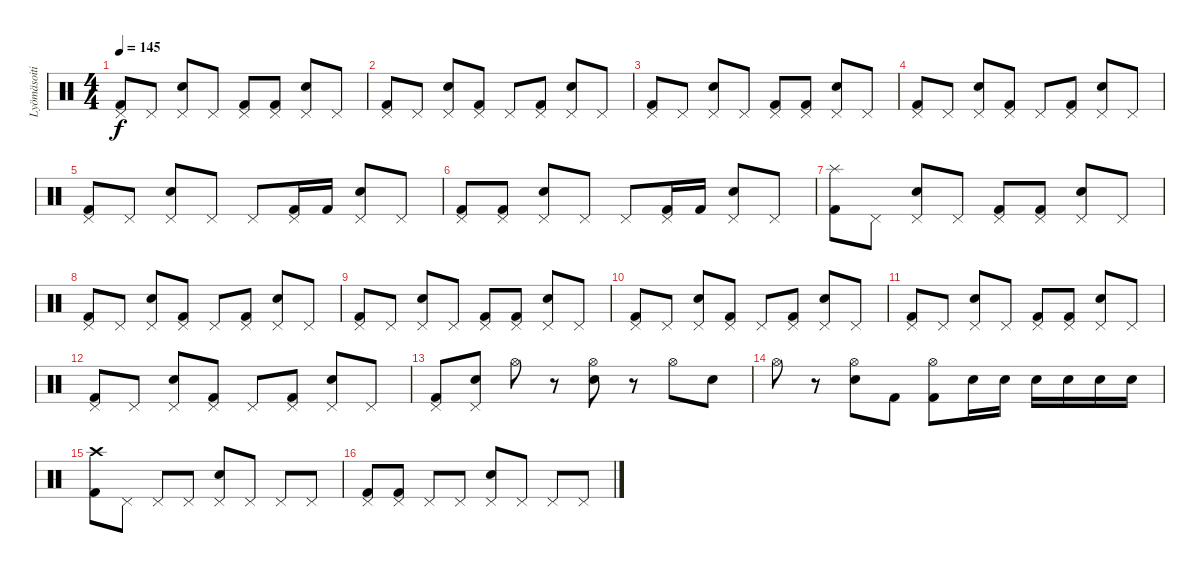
\track ("Lyömäsoitin" "Lyömäsoiti") {instrument percussion}
\staff {score}
\articulation defaults
\ts (4 4)
\tempo 145
\clef neutral
\ks c
("Pedal Hi-Hat (hit)" "Kick (hit) 2").8{dy f} "Pedal Hi-Hat (hit)".8 ("Pedal Hi-Hat (hit)" "Electric Snare (hit)").8 "Pedal Hi-Hat (hit)".8 ("Pedal Hi-Hat (hit)" "Kick (hit) 2").8 ("Pedal Hi-Hat (hit)" "Kick (hit) 2").8 ("Pedal Hi-Hat (hit)" "Electric Snare (hit)").8 "Pedal Hi-Hat (hit)".8 |
("Pedal Hi-Hat (hit)" "Kick (hit) 2").8 "Pedal Hi-Hat (hit)".8 ("Pedal Hi-Hat (hit)" "Electric Snare (hit)").8 ("Pedal Hi-Hat (hit)" "Kick (hit) 2").8 "Pedal Hi-Hat (hit)".8 ("Pedal Hi-Hat (hit)" "Kick (hit) 2").8 ("Pedal Hi-Hat (hit)" "Electric Snare (hit)").8 "Pedal Hi-Hat (hit)".8 |
("Pedal Hi-Hat (hit)" "Kick (hit) 2").8 "Pedal Hi-Hat (hit)".8 ("Pedal Hi-Hat (hit)" "Electric Snare (hit)").8 "Pedal Hi-Hat (hit)".8 ("Pedal Hi-Hat (hit)" "Kick (hit) 2").8 ("Pedal Hi-Hat (hit)" "Kick (hit) 2").8 ("Pedal Hi-Hat (hit)" "Electric Snare (hit)").8 "Pedal Hi-Hat (hit)".8 |
("Pedal Hi-Hat (hit)" "Kick (hit) 2").8 "Pedal Hi-Hat (hit)".8 ("Pedal Hi-Hat (hit)" "Electric Snare (hit)").8 ("Pedal Hi-Hat (hit)" "Kick (hit) 2").8 "Pedal Hi-Hat (hit)".8 ("Pedal Hi-Hat (hit)" "Kick (hit) 2").8 ("Pedal Hi-Hat (hit)" "Electric Snare (hit)").8 "Pedal Hi-Hat (hit)".8 |
("Pedal Hi-Hat (hit)" "Kick (hit) 2").8 "Pedal Hi-Hat (hit)".8 ("Pedal Hi-Hat (hit)" "Electric Snare (hit)").8 "Pedal Hi-Hat (hit)".8 "Pedal Hi-Hat (hit)".8 ("Pedal Hi-Hat (hit)" "Kick (hit) 2").16 "Kick (hit) 2".16 ("Pedal Hi-Hat (hit)" "Electric Snare (hit)").8 "Pedal Hi-Hat (hit)".8 |
("Pedal Hi-Hat (hit)" "Kick (hit) 2").8 ("Pedal Hi-Hat (hit)" "Kick (hit) 2").8 ("Pedal Hi-Hat (hit)" "Electric Snare (hit)").8 "Pedal Hi-Hat (hit)".8 "Pedal Hi-Hat (hit)".8 ("Pedal Hi-Hat (hit)" "Kick (hit) 2").16 "Kick (hit) 2".16 ("Pedal Hi-Hat (hit)" "Electric Snare (hit)").8 "Pedal Hi-Hat (hit)".8 |
("Splash (hit)" "Kick (hit) 2").8 "Pedal Hi-Hat (hit)".8 ("Pedal Hi-Hat (hit)" "Electric Snare (hit)").8 "Pedal Hi-Hat (hit)".8 ("Pedal Hi-Hat (hit)" "Kick (hit) 2").8 ("Pedal Hi-Hat (hit)" "Kick (hit) 2").8 ("Pedal Hi-Hat (hit)" "Electric Snare (hit)").8 "Pedal Hi-Hat (hit)".8 |
("Pedal Hi-Hat (hit)" "Kick (hit) 2").8 "Pedal Hi-Hat (hit)".8 ("Pedal Hi-Hat (hit)" "Electric Snare (hit)").8 ("Pedal Hi-Hat (hit)" "Kick (hit) 2").8 "Pedal Hi-Hat (hit)".8 ("Pedal Hi-Hat (hit)" "Kick (hit) 2").8 ("Pedal Hi-Hat (hit)" "Electric Snare (hit)").8 "Pedal Hi-Hat (hit)".8 |
("Pedal Hi-Hat (hit)" "Kick (hit) 2").8 "Pedal Hi-Hat (hit)".8 ("Pedal Hi-Hat (hit)" "Electric Snare (hit)").8 "Pedal Hi-Hat (hit)".8 ("Pedal Hi-Hat (hit)" "Kick (hit) 2").8 ("Pedal Hi-Hat (hit)" "Kick (hit) 2").8 ("Pedal Hi-Hat (hit)" "Electric Snare (hit)").8 "Pedal Hi-Hat (hit)".8 |
("Pedal Hi-Hat (hit)" "Kick (hit) 2").8 "Pedal Hi-Hat (hit)".8 ("Pedal Hi-Hat (hit)" "Electric Snare (hit)").8 ("Pedal Hi-Hat (hit)" "Kick (hit) 2").8 "Pedal Hi-Hat (hit)".8 ("Pedal Hi-Hat (hit)" "Kick (hit) 2").8 ("Pedal Hi-Hat (hit)" "Electric Snare (hit)").8 "Pedal Hi-Hat (hit)".8 |
("Pedal Hi-Hat (hit)" "Kick (hit) 2").8 "Pedal Hi-Hat (hit)".8 ("Pedal Hi-Hat (hit)" "Electric Snare (hit)").8 "Pedal Hi-Hat (hit)".8 ("Pedal Hi-Hat (hit)" "Kick (hit) 2").8 ("Pedal Hi-Hat (hit)" "Kick (hit) 2").8 ("Pedal Hi-Hat (hit)" "Electric Snare (hit)").8 "Pedal Hi-Hat (hit)".8 |
("Pedal Hi-Hat (hit)" "Kick (hit) 2").8 "Pedal Hi-Hat (hit)".8 ("Pedal Hi-Hat (hit)" "Electric Snare (hit)").8 ("Pedal Hi-Hat (hit)" "Kick (hit) 2").8 "Pedal Hi-Hat (hit)".8 ("Pedal Hi-Hat (hit)" "Kick (hit) 2").8 ("Pedal Hi-Hat (hit)" "Electric Snare (hit)").8 "Pedal Hi-Hat (hit)".8 |
("Pedal Hi-Hat (hit)" "Kick (hit) 2").8 ("Pedal Hi-Hat (hit)" "Electric Snare (hit)").8 "Hi-Hat (open)".8 r.8 ("Hi-Hat (open)" "Electric Snare (hit)").8 r.8 "Hi-Hat (open)".8 "Electric Snare (hit)".8 |
"Hi-Hat (open)".8 r.8 ("Hi-Hat (open)" "Electric Snare (hit)").8 "Kick (hit) 2".8 ("Hi-Hat (open)" "Kick (hit) 2").8 "Electric Snare (hit)".16 "Electric Snare (hit)".16 "Electric Snare (hit)".16 "Electric Snare (hit)".16 "Electric Snare (hit)".16 "Electric Snare (hit)".16 |
("Crash high (hit)" "Kick (hit) 2").8 "Pedal Hi-Hat (hit)".8 "Pedal Hi-Hat (hit)".8 "Pedal Hi-Hat (hit)".8 ("Pedal Hi-Hat (hit)" "Electric Snare (hit)").8 "Pedal Hi-Hat (hit)".8 "Pedal Hi-Hat (hit)".8 "Pedal Hi-Hat (hit)".8 |
("Pedal Hi-Hat (hit)" "Kick (hit) 2").8 ("Pedal Hi-Hat (hit)" "Kick (hit) 2").8 "Pedal Hi-Hat (hit)".8 "Pedal Hi-Hat (hit)".8 ("Pedal Hi-Hat (hit)" "Electric Snare (hit)").8 "Pedal Hi-Hat (hit)".8 "Pedal Hi-Hat (hit)".8 "Pedal Hi-Hat (hit)".8
